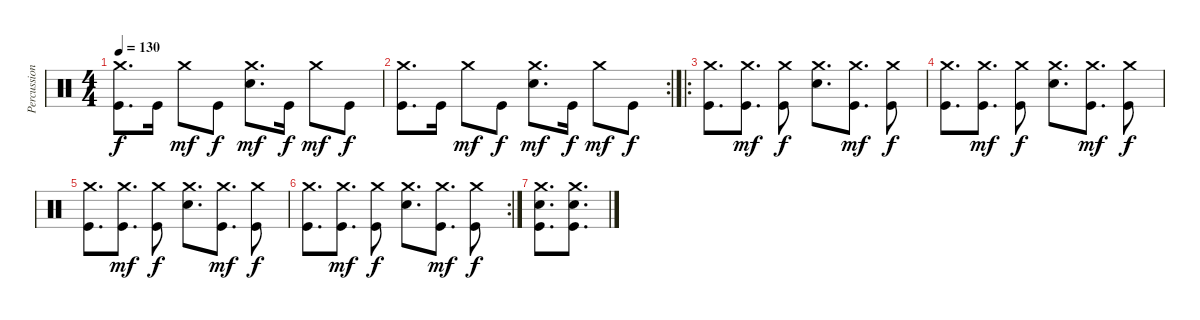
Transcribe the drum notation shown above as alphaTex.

\track ("Percussion" "Percussion") {instrument percussion}
\staff {score}
\articulation defaults
\ts (4 4)
\tempo 130
\clef neutral
\ks c
("Crash medium (hit)" "Kick (hit)").8{d dy f} "Kick (hit)".16 "Crash medium (hit)".8{dy mf} "Kick (hit)".8{dy f} ("Crash medium (hit)" "Snare (hit) 2").8{d dy mf} "Kick (hit)".16{dy f} "Crash medium (hit)".8{dy mf} "Kick (hit)".8{dy f} |
\rc 2
("Crash medium (hit)" "Kick (hit)").8{d} "Kick (hit)".16 "Crash medium (hit)".8{dy mf} "Kick (hit)".8{dy f} ("Crash medium (hit)" "Snare (hit) 2").8{d dy mf} "Kick (hit)".16{dy f} "Crash medium (hit)".8{dy mf} "Kick (hit)".8{dy f} |
\ro
("Crash medium (hit)" "Kick (hit)").8{d} ("Crash medium (hit)" "Kick (hit)").8{d dy mf} ("Crash medium (hit)" "Kick (hit)").8{dy f} ("Crash medium (hit)" "Snare (hit) 2").8{d} ("Crash medium (hit)" "Kick (hit)").8{d dy mf} ("Crash medium (hit)" "Kick (hit)").8{dy f} |
("Crash medium (hit)" "Kick (hit)").8{d} ("Crash medium (hit)" "Kick (hit)").8{d dy mf} ("Crash medium (hit)" "Kick (hit)").8{dy f} ("Crash medium (hit)" "Snare (hit) 2").8{d} ("Crash medium (hit)" "Kick (hit)").8{d dy mf} ("Crash medium (hit)" "Kick (hit)").8{dy f} |
("Crash medium (hit)" "Kick (hit)").8{d} ("Crash medium (hit)" "Kick (hit)").8{d dy mf} ("Crash medium (hit)" "Kick (hit)").8{dy f} ("Crash medium (hit)" "Snare (hit) 2").8{d} ("Crash medium (hit)" "Kick (hit)").8{d dy mf} ("Crash medium (hit)" "Kick (hit)").8{dy f} |
\rc 2
("Crash medium (hit)" "Kick (hit)").8{d} ("Crash medium (hit)" "Kick (hit)").8{d dy mf} ("Crash medium (hit)" "Kick (hit)").8{dy f} ("Crash medium (hit)" "Snare (hit) 2").8{d} ("Crash medium (hit)" "Kick (hit)").8{d dy mf} ("Crash medium (hit)" "Kick (hit)").8{dy f} |
("Crash medium (hit)" "Snare (hit) 2" "Kick (hit)").8{d} ("Crash medium (hit)" "Snare (hit) 2" "Kick (hit)").8{d}
